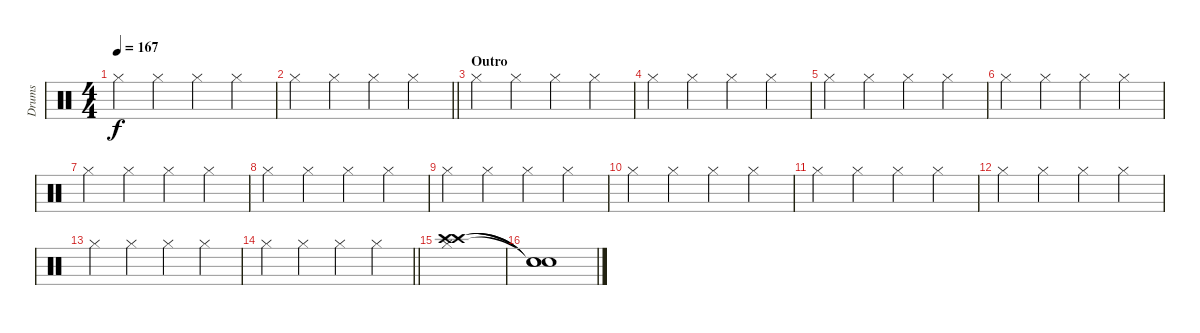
\track ("Drums" "Drums") {instrument percussion}
\staff {score}
\articulation defaults
\ts (4 4)
\tempo 167
\clef neutral
\ks c "Hi-Hat (closed)".4{dy f} "Hi-Hat (closed)".4 "Hi-Hat (closed)".4 "Hi-Hat (closed)".4
|
\barLineRight lightlight "Hi-Hat (closed)".4 "Hi-Hat (closed)".4 "Hi-Hat (closed)".4 "Hi-Hat (closed)".4
|
\section ("" "Outro")
"Hi-Hat (closed)".4 "Hi-Hat (closed)".4 "Hi-Hat (closed)".4 "Hi-Hat (closed)".4 |
"Hi-Hat (closed)".4 "Hi-Hat (closed)".4 "Hi-Hat (closed)".4 "Hi-Hat (closed)".4 |
"Hi-Hat (closed)".4 "Hi-Hat (closed)".4 "Hi-Hat (closed)".4 "Hi-Hat (closed)".4 |
"Hi-Hat (closed)".4 "Hi-Hat (closed)".4 "Hi-Hat (closed)".4 "Hi-Hat (closed)".4 |
"Hi-Hat (closed)".4 "Hi-Hat (closed)".4 "Hi-Hat (closed)".4 "Hi-Hat (closed)".4 |
"Hi-Hat (closed)".4 "Hi-Hat (closed)".4 "Hi-Hat (closed)".4 "Hi-Hat (closed)".4 |
"Hi-Hat (closed)".4 "Hi-Hat (closed)".4 "Hi-Hat (closed)".4 "Hi-Hat (closed)".4 |
"Hi-Hat (closed)".4 "Hi-Hat (closed)".4 "Hi-Hat (closed)".4 "Hi-Hat (closed)".4 |
"Hi-Hat (closed)".4 "Hi-Hat (closed)".4 "Hi-Hat (closed)".4 "Hi-Hat (closed)".4 |
"Hi-Hat (closed)".4 "Hi-Hat (closed)".4 "Hi-Hat (closed)".4 "Hi-Hat (closed)".4 |
"Hi-Hat (closed)".4 "Hi-Hat (closed)".4 "Hi-Hat (closed)".4 "Hi-Hat (closed)".4 |
\barLineRight lightlight "Hi-Hat (closed)".4 "Hi-Hat (closed)".4 "Hi-Hat (closed)".4 "Hi-Hat (closed)".4
|
("Crash high (hit)" "Crash high (hit)" "Hi-Hat (closed)").1 |
("Snare (hit)"{t} "Snare (hit)"{t} "Snare (hit)"{t}).1
